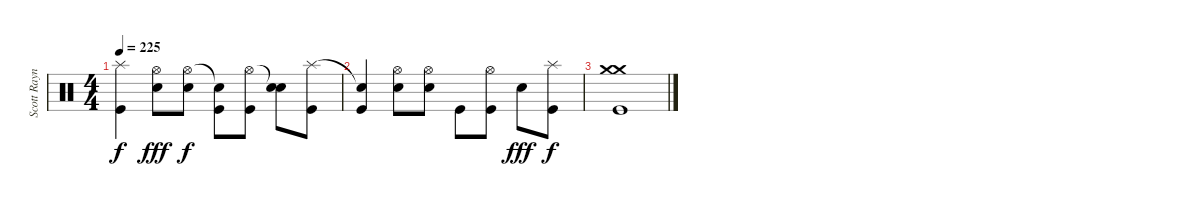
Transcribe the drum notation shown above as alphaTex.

\track ("Scott Raynor - Drums/Bateria" "Scott Rayn") {instrument percussion}
\staff {score}
\articulation defaults
\ts (4 4)
\tempo 225
\clef neutral
\ks c
("Splash (hit)" "Kick (hit)").4{dy f} ("Hi-Hat (open)" "Electric Snare (hit)").8{dy fff} ("Hi-Hat (open)" "Electric Snare (hit)").8{dy f} ("Snare (hit)"{t} "Kick (hit)").8 ("Hi-Hat (open)" "Kick (hit)").8 ("Snare (hit)"{t} "Electric Snare (hit)").8 ("Splash (hit)" "Kick (hit)").8 |
("Snare (hit)"{t} "Kick (hit)").4 ("Hi-Hat (open)" "Electric Snare (hit)").8 ("Hi-Hat (open)" "Electric Snare (hit)").8 "Kick (hit)".8 ("Hi-Hat (open)" "Kick (hit)").8 "Electric Snare (hit)".8{dy fff} ("Splash (hit)" "Kick (hit)").8{dy f} |
("Crash medium (hit)" "Crash medium (hit)" "Kick (hit)").1
